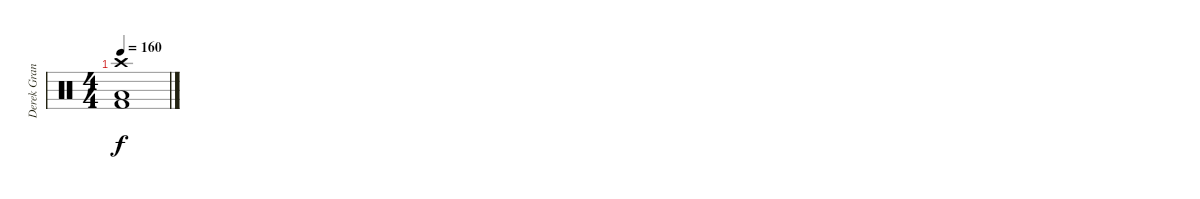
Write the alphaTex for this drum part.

\track ("Derek Grant" "Derek Gran") {instrument percussion}
\staff {score}
\articulation defaults
\ts (4 4)
\tempo 160
\clef neutral
\ks c
("Crash high (hit)" "Low Floor Tom (hit)" "Kick (hit) 2").1{dy f}
